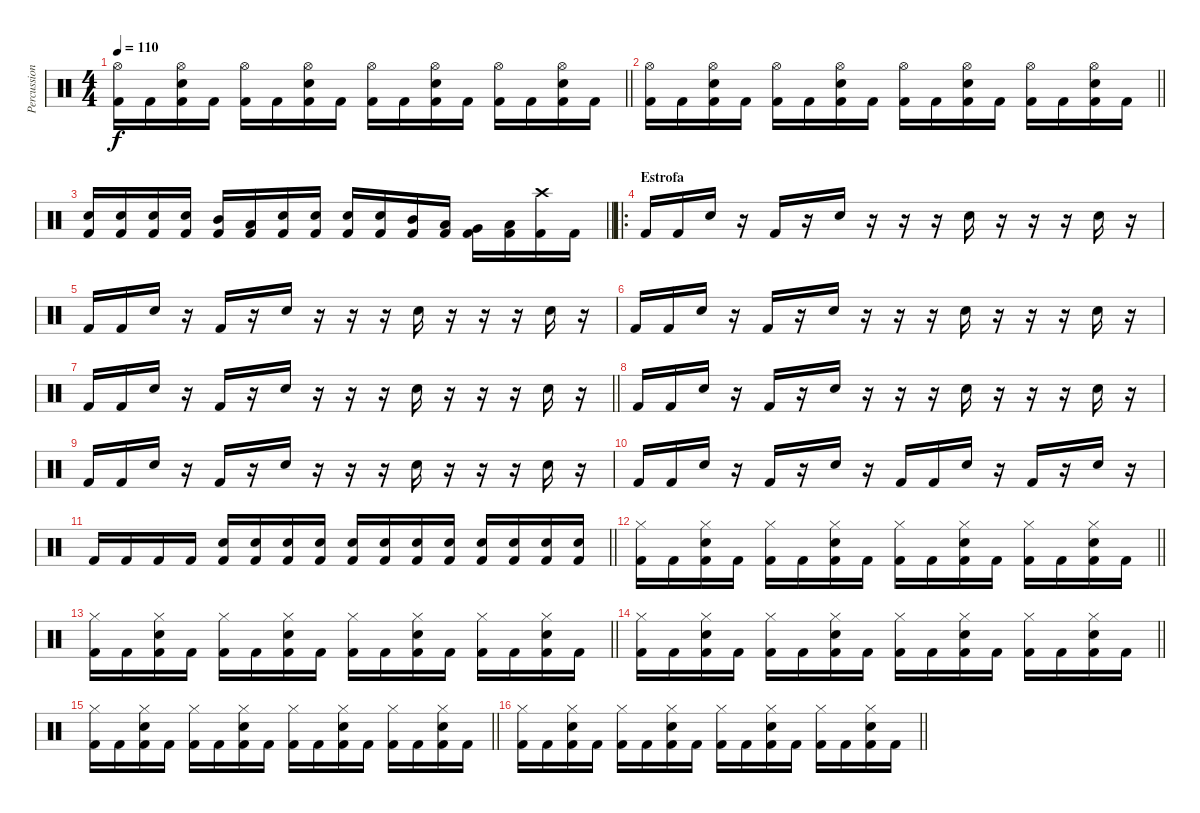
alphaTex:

\track ("Percussion" "Percussion") {instrument percussion}
\staff {score}
\articulation defaults
\ts (4 4)
\tempo 110
\clef neutral
\barLineRight lightlight
\ks c
("Hi-Hat (open)" "Kick (hit) 2").16{dy f} "Kick (hit) 2".16 ("Hi-Hat (open)" "Electric Snare (hit)" "Kick (hit) 2").16 "Kick (hit) 2".16 ("Hi-Hat (open)" "Kick (hit) 2").16 "Kick (hit) 2".16 ("Hi-Hat (open)" "Electric Snare (hit)" "Kick (hit) 2").16 "Kick (hit) 2".16 ("Hi-Hat (open)" "Kick (hit) 2").16 "Kick (hit) 2".16 ("Hi-Hat (open)" "Electric Snare (hit)" "Kick (hit) 2").16 "Kick (hit) 2".16 ("Hi-Hat (open)" "Kick (hit) 2").16 "Kick (hit) 2".16 ("Hi-Hat (open)" "Electric Snare (hit)" "Kick (hit) 2").16 "Kick (hit) 2".16 |
\barLineRight lightlight
("Hi-Hat (open)" "Kick (hit) 2").16 "Kick (hit) 2".16 ("Hi-Hat (open)" "Electric Snare (hit)" "Kick (hit) 2").16 "Kick (hit) 2".16 ("Hi-Hat (open)" "Kick (hit) 2").16 "Kick (hit) 2".16 ("Hi-Hat (open)" "Electric Snare (hit)" "Kick (hit) 2").16 "Kick (hit) 2".16 ("Hi-Hat (open)" "Kick (hit) 2").16 "Kick (hit) 2".16 ("Hi-Hat (open)" "Electric Snare (hit)" "Kick (hit) 2").16 "Kick (hit) 2".16 ("Hi-Hat (open)" "Kick (hit) 2").16 "Kick (hit) 2".16 ("Hi-Hat (open)" "Electric Snare (hit)" "Kick (hit) 2").16 "Kick (hit) 2".16 |
\barLineRight lightlight
("Electric Snare (hit)" "Kick (hit) 2").16 ("Electric Snare (hit)" "Kick (hit) 2").16 ("Electric Snare (hit)" "Kick (hit) 2").16 ("Electric Snare (hit)" "Kick (hit) 2").16 ("Mid Tom (hit)" "Kick (hit) 2").16 ("Low Tom (hit)" "Kick (hit) 2").16 ("Electric Snare (hit)" "Kick (hit) 2").16 ("Electric Snare (hit)" "Kick (hit) 2").16 ("Electric Snare (hit)" "Kick (hit) 2").16 ("Electric Snare (hit)" "Kick (hit) 2").16 ("Mid Tom (hit)" "Kick (hit) 2").16 ("Low Tom (hit)" "Kick (hit) 2").16 ("Very Low Tom (hit)" "Kick (hit) 2").16 ("Low Floor Tom (hit)" "Kick (hit) 2").16 ("Crash high (hit)" "Kick (hit) 2").16 "Kick (hit) 2".16 |
\ro
\section ("" "Estrofa")
"Kick (hit) 2".16 "Kick (hit) 2".16 "Electric Snare (hit)".16 r.16 "Kick (hit) 2".16 r.16 "Electric Snare (hit)".16 r.16 r.16 r.16 "Electric Snare (hit)".16 r.16 r.16 r.16 "Electric Snare (hit)".16 r.16 |
"Kick (hit) 2".16 "Kick (hit) 2".16 "Electric Snare (hit)".16 r.16 "Kick (hit) 2".16 r.16 "Electric Snare (hit)".16 r.16 r.16 r.16 "Electric Snare (hit)".16 r.16 r.16 r.16 "Electric Snare (hit)".16 r.16 |
"Kick (hit) 2".16 "Kick (hit) 2".16 "Electric Snare (hit)".16 r.16 "Kick (hit) 2".16 r.16 "Electric Snare (hit)".16 r.16 r.16 r.16 "Electric Snare (hit)".16 r.16 r.16 r.16 "Electric Snare (hit)".16 r.16 |
\barLineRight lightlight "Kick (hit) 2".16 "Kick (hit) 2".16 "Electric Snare (hit)".16
r.16 "Kick (hit) 2".16 r.16 "Electric Snare (hit)".16 r.16 r.16 r.16 "Electric Snare (hit)".16 r.16 r.16 r.16 "Electric Snare (hit)".16 r.16 |
\section ("" "")
"Kick (hit) 2".16 "Kick (hit) 2".16 "Electric Snare (hit)".16 r.16 "Kick (hit) 2".16 r.16 "Electric Snare (hit)".16 r.16 r.16 r.16 "Electric Snare (hit)".16 r.16 r.16 r.16 "Electric Snare (hit)".16 r.16 |
"Kick (hit) 2".16 "Kick (hit) 2".16 "Electric Snare (hit)".16 r.16 "Kick (hit) 2".16 r.16 "Electric Snare (hit)".16 r.16 r.16 r.16 "Electric Snare (hit)".16 r.16 r.16 r.16 "Electric Snare (hit)".16 r.16 |
"Kick (hit) 2".16 "Kick (hit) 2".16 "Electric Snare (hit)".16 r.16 "Kick (hit) 2".16 r.16 "Electric Snare (hit)".16 r.16 "Kick (hit) 2".16 "Kick (hit) 2".16 "Electric Snare (hit)".16 r.16 "Kick (hit) 2".16 r.16 "Electric Snare (hit)".16 r.16 |
\barLineRight lightlight "Kick (hit) 2".16 "Kick (hit) 2".16 "Kick (hit) 2".16 "Kick (hit) 2".16
("Electric Snare (hit)" "Kick (hit) 2").16 ("Electric Snare (hit)" "Kick (hit) 2").16 ("Electric Snare (hit)" "Kick (hit) 2").16 ("Electric Snare (hit)" "Kick (hit) 2").16 ("Electric Snare (hit)" "Kick (hit) 2").16 ("Electric Snare (hit)" "Kick (hit) 2").16 ("Electric Snare (hit)" "Kick (hit) 2").16 ("Electric Snare (hit)" "Kick (hit) 2").16 ("Electric Snare (hit)" "Kick (hit) 2").16 ("Electric Snare (hit)" "Kick (hit) 2").16 ("Electric Snare (hit)" "Kick (hit) 2").16 ("Electric Snare (hit)" "Kick (hit) 2").16 |
\section ("" "")
\barLineRight lightlight
("Hi-Hat (closed)" "Kick (hit) 2").16 "Kick (hit) 2".16 ("Hi-Hat (closed)" "Electric Snare (hit)" "Kick (hit) 2").16 "Kick (hit) 2".16 ("Hi-Hat (closed)" "Kick (hit) 2").16 "Kick (hit) 2".16 ("Hi-Hat (closed)" "Electric Snare (hit)" "Kick (hit) 2").16 "Kick (hit) 2".16 ("Hi-Hat (closed)" "Kick (hit) 2").16 "Kick (hit) 2".16 ("Hi-Hat (closed)" "Electric Snare (hit)" "Kick (hit) 2").16 "Kick (hit) 2".16 ("Hi-Hat (closed)" "Kick (hit) 2").16 "Kick (hit) 2".16 ("Hi-Hat (closed)" "Electric Snare (hit)" "Kick (hit) 2").16 "Kick (hit) 2".16 |
\barLineRight lightlight
("Hi-Hat (closed)" "Kick (hit) 2").16 "Kick (hit) 2".16 ("Hi-Hat (closed)" "Electric Snare (hit)" "Kick (hit) 2").16 "Kick (hit) 2".16 ("Hi-Hat (closed)" "Kick (hit) 2").16 "Kick (hit) 2".16 ("Hi-Hat (closed)" "Electric Snare (hit)" "Kick (hit) 2").16 "Kick (hit) 2".16 ("Hi-Hat (closed)" "Kick (hit) 2").16 "Kick (hit) 2".16 ("Hi-Hat (closed)" "Electric Snare (hit)" "Kick (hit) 2").16 "Kick (hit) 2".16 ("Hi-Hat (closed)" "Kick (hit) 2").16 "Kick (hit) 2".16 ("Hi-Hat (closed)" "Electric Snare (hit)" "Kick (hit) 2").16 "Kick (hit) 2".16 |
\barLineRight lightlight
("Hi-Hat (closed)" "Kick (hit) 2").16 "Kick (hit) 2".16 ("Hi-Hat (closed)" "Electric Snare (hit)" "Kick (hit) 2").16 "Kick (hit) 2".16 ("Hi-Hat (closed)" "Kick (hit) 2").16 "Kick (hit) 2".16 ("Hi-Hat (closed)" "Electric Snare (hit)" "Kick (hit) 2").16 "Kick (hit) 2".16 ("Hi-Hat (closed)" "Kick (hit) 2").16 "Kick (hit) 2".16 ("Hi-Hat (closed)" "Electric Snare (hit)" "Kick (hit) 2").16 "Kick (hit) 2".16 ("Hi-Hat (closed)" "Kick (hit) 2").16 "Kick (hit) 2".16 ("Hi-Hat (closed)" "Electric Snare (hit)" "Kick (hit) 2").16 "Kick (hit) 2".16 |
\barLineRight lightlight
("Hi-Hat (closed)" "Kick (hit) 2").16 "Kick (hit) 2".16 ("Hi-Hat (closed)" "Electric Snare (hit)" "Kick (hit) 2").16 "Kick (hit) 2".16 ("Hi-Hat (closed)" "Kick (hit) 2").16 "Kick (hit) 2".16 ("Hi-Hat (closed)" "Electric Snare (hit)" "Kick (hit) 2").16 "Kick (hit) 2".16 ("Hi-Hat (closed)" "Kick (hit) 2").16 "Kick (hit) 2".16 ("Hi-Hat (closed)" "Electric Snare (hit)" "Kick (hit) 2").16 "Kick (hit) 2".16 ("Hi-Hat (closed)" "Kick (hit) 2").16 "Kick (hit) 2".16 ("Hi-Hat (closed)" "Electric Snare (hit)" "Kick (hit) 2").16 "Kick (hit) 2".16 |
\barLineRight lightlight
("Hi-Hat (closed)" "Kick (hit) 2").16 "Kick (hit) 2".16 ("Hi-Hat (closed)" "Electric Snare (hit)" "Kick (hit) 2").16 "Kick (hit) 2".16 ("Hi-Hat (closed)" "Kick (hit) 2").16 "Kick (hit) 2".16 ("Hi-Hat (closed)" "Electric Snare (hit)" "Kick (hit) 2").16 "Kick (hit) 2".16 ("Hi-Hat (closed)" "Kick (hit) 2").16 "Kick (hit) 2".16 ("Hi-Hat (closed)" "Electric Snare (hit)" "Kick (hit) 2").16 "Kick (hit) 2".16 ("Hi-Hat (closed)" "Kick (hit) 2").16 "Kick (hit) 2".16 ("Hi-Hat (closed)" "Electric Snare (hit)" "Kick (hit) 2").16 "Kick (hit) 2".16
